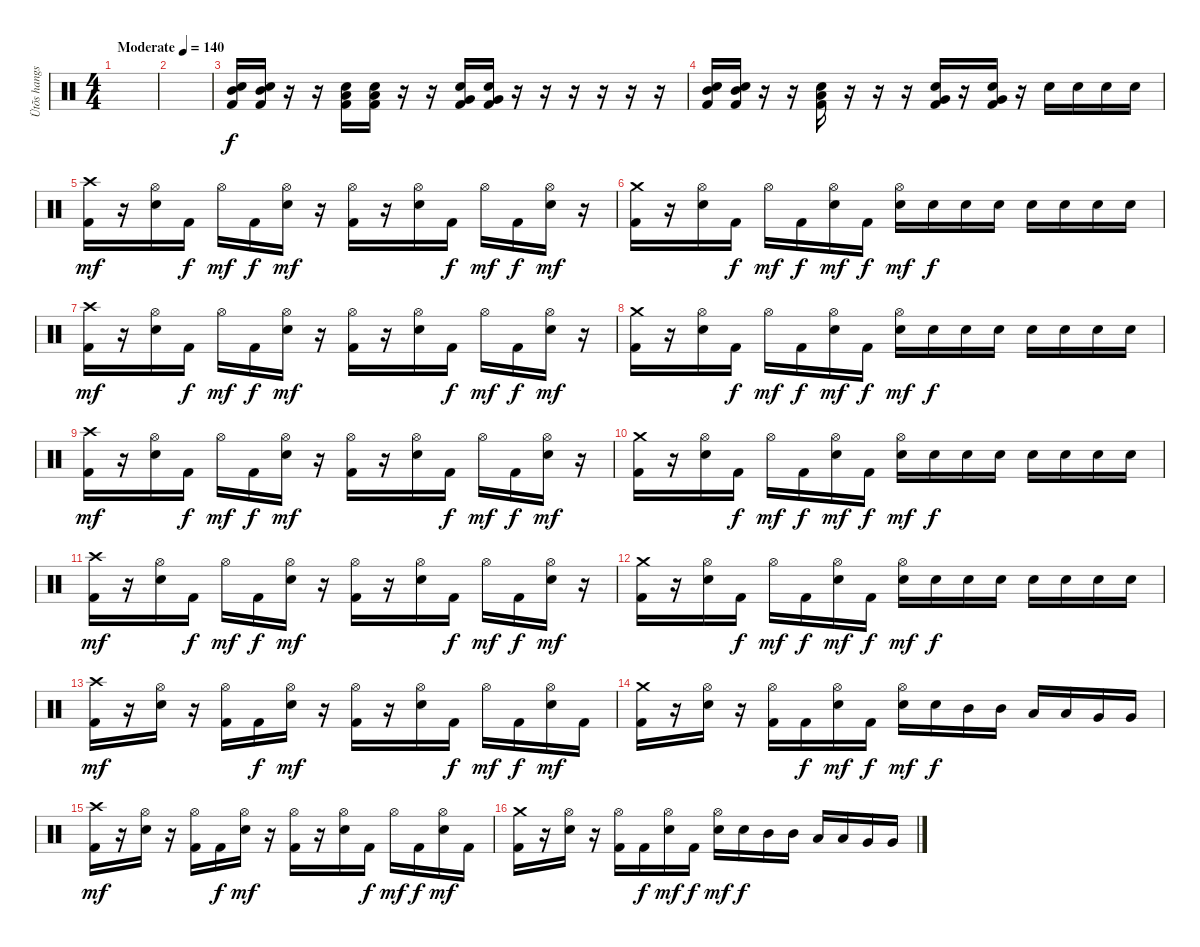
\track ("Ütõs hangszer" "Ütõs hangs") {instrument percussion}
\staff {score}
\articulation defaults
\ts (4 4)
\tempo (140 "Moderate")
\clef neutral
\ks c
|
|
("Mid Tom (hit)" "Electric Snare (hit)" "Kick (hit) 2").16 ("Mid Tom (hit)" "Electric Snare (hit)" "Kick (hit) 2").16 r.16 r.16 ("Low Tom (hit)" "Electric Snare (hit)" "Kick (hit) 2").16 ("Low Tom (hit)" "Electric Snare (hit)" "Kick (hit) 2").16 r.16 r.16 ("Very Low Tom (hit)" "Electric Snare (hit)" "Kick (hit) 2").16 ("Very Low Tom (hit)" "Electric Snare (hit)" "Kick (hit) 2").16 r.16 r.16 r.16 r.16 r.16 r.16 |
("Mid Tom (hit)" "Electric Snare (hit)" "Kick (hit) 2").16 ("Mid Tom (hit)" "Electric Snare (hit)" "Kick (hit) 2").16 r.16 r.16 ("Low Tom (hit)" "Electric Snare (hit)" "Kick (hit) 2").16 r.16 r.16 r.16 ("Very Low Tom (hit)" "Electric Snare (hit)" "Kick (hit) 2").16 r.16 ("Very Low Tom (hit)" "Electric Snare (hit)" "Kick (hit) 2").16 r.16 "Electric Snare (hit)".16 "Electric Snare (hit)".16 "Electric Snare (hit)".16 "Electric Snare (hit)".16 |
("Crash high (hit)" "Kick (hit) 2").16{dy mf} r.16 ("Hi-Hat (open)" "Electric Snare (hit)").16 "Kick (hit) 2".16{dy f} "Hi-Hat (open)".16{dy mf} "Kick (hit) 2".16{dy f} ("Hi-Hat (open)" "Electric Snare (hit)").16{dy mf} r.16 ("Hi-Hat (open)" "Kick (hit) 2").16 r.16 ("Hi-Hat (open)" "Electric Snare (hit)").16 "Kick (hit) 2".16{dy f} "Hi-Hat (open)".16{dy mf} "Kick (hit) 2".16{dy f} ("Hi-Hat (open)" "Electric Snare (hit)").16{dy mf} r.16 |
("Crash medium (hit)" "Kick (hit) 2").16 r.16 ("Hi-Hat (open)" "Electric Snare (hit)").16 "Kick (hit) 2".16{dy f} "Hi-Hat (open)".16{dy mf} "Kick (hit) 2".16{dy f} ("Hi-Hat (open)" "Electric Snare (hit)").16{dy mf} "Kick (hit) 2".16{dy f} ("Hi-Hat (open)" "Electric Snare (hit)").16{dy mf} "Electric Snare (hit)".16{dy f} "Electric Snare (hit)".16 "Electric Snare (hit)".16 "Electric Snare (hit)".16 "Electric Snare (hit)".16 "Electric Snare (hit)".16 "Electric Snare (hit)".16 |
("Crash high (hit)" "Kick (hit) 2").16{dy mf} r.16 ("Hi-Hat (open)" "Electric Snare (hit)").16 "Kick (hit) 2".16{dy f} "Hi-Hat (open)".16{dy mf} "Kick (hit) 2".16{dy f} ("Hi-Hat (open)" "Electric Snare (hit)").16{dy mf} r.16 ("Hi-Hat (open)" "Kick (hit) 2").16 r.16 ("Hi-Hat (open)" "Electric Snare (hit)").16 "Kick (hit) 2".16{dy f} "Hi-Hat (open)".16{dy mf} "Kick (hit) 2".16{dy f} ("Hi-Hat (open)" "Electric Snare (hit)").16{dy mf} r.16 |
("Crash medium (hit)" "Kick (hit) 2").16 r.16 ("Hi-Hat (open)" "Electric Snare (hit)").16 "Kick (hit) 2".16{dy f} "Hi-Hat (open)".16{dy mf} "Kick (hit) 2".16{dy f} ("Hi-Hat (open)" "Electric Snare (hit)").16{dy mf} "Kick (hit) 2".16{dy f} ("Hi-Hat (open)" "Electric Snare (hit)").16{dy mf} "Electric Snare (hit)".16{dy f} "Electric Snare (hit)".16 "Electric Snare (hit)".16 "Electric Snare (hit)".16 "Electric Snare (hit)".16 "Electric Snare (hit)".16 "Electric Snare (hit)".16 |
("Crash high (hit)" "Kick (hit) 2").16{dy mf} r.16 ("Hi-Hat (open)" "Electric Snare (hit)").16 "Kick (hit) 2".16{dy f} "Hi-Hat (open)".16{dy mf} "Kick (hit) 2".16{dy f} ("Hi-Hat (open)" "Electric Snare (hit)").16{dy mf} r.16 ("Hi-Hat (open)" "Kick (hit) 2").16 r.16 ("Hi-Hat (open)" "Electric Snare (hit)").16 "Kick (hit) 2".16{dy f} "Hi-Hat (open)".16{dy mf} "Kick (hit) 2".16{dy f} ("Hi-Hat (open)" "Electric Snare (hit)").16{dy mf} r.16 |
("Crash medium (hit)" "Kick (hit) 2").16 r.16 ("Hi-Hat (open)" "Electric Snare (hit)").16 "Kick (hit) 2".16{dy f} "Hi-Hat (open)".16{dy mf} "Kick (hit) 2".16{dy f} ("Hi-Hat (open)" "Electric Snare (hit)").16{dy mf} "Kick (hit) 2".16{dy f} ("Hi-Hat (open)" "Electric Snare (hit)").16{dy mf} "Electric Snare (hit)".16{dy f} "Electric Snare (hit)".16 "Electric Snare (hit)".16 "Electric Snare (hit)".16 "Electric Snare (hit)".16 "Electric Snare (hit)".16 "Electric Snare (hit)".16 |
("Crash high (hit)" "Kick (hit) 2").16{dy mf} r.16 ("Hi-Hat (open)" "Electric Snare (hit)").16 "Kick (hit) 2".16{dy f} "Hi-Hat (open)".16{dy mf} "Kick (hit) 2".16{dy f} ("Hi-Hat (open)" "Electric Snare (hit)").16{dy mf} r.16 ("Hi-Hat (open)" "Kick (hit) 2").16 r.16 ("Hi-Hat (open)" "Electric Snare (hit)").16 "Kick (hit) 2".16{dy f} "Hi-Hat (open)".16{dy mf} "Kick (hit) 2".16{dy f} ("Hi-Hat (open)" "Electric Snare (hit)").16{dy mf} r.16 |
("Crash medium (hit)" "Kick (hit) 2").16 r.16 ("Hi-Hat (open)" "Electric Snare (hit)").16 "Kick (hit) 2".16{dy f} "Hi-Hat (open)".16{dy mf} "Kick (hit) 2".16{dy f} ("Hi-Hat (open)" "Electric Snare (hit)").16{dy mf} "Kick (hit) 2".16{dy f} ("Hi-Hat (open)" "Electric Snare (hit)").16{dy mf} "Electric Snare (hit)".16{dy f} "Electric Snare (hit)".16 "Electric Snare (hit)".16 "Electric Snare (hit)".16 "Electric Snare (hit)".16 "Electric Snare (hit)".16 "Electric Snare (hit)".16 |
("Crash high (hit)" "Kick (hit) 2").16{dy mf} r.16 ("Hi-Hat (open)" "Electric Snare (hit)").16 r.16 ("Hi-Hat (open)" "Kick (hit) 2").16 "Kick (hit) 2".16{dy f} ("Hi-Hat (open)" "Electric Snare (hit)").16{dy mf} r.16 ("Hi-Hat (open)" "Kick (hit) 2").16 r.16 ("Hi-Hat (open)" "Electric Snare (hit)").16 "Kick (hit) 2".16{dy f} "Hi-Hat (open)".16{dy mf} "Kick (hit) 2".16{dy f} ("Hi-Hat (open)" "Electric Snare (hit)").16{dy mf} "Kick (hit) 2".16 |
("Crash medium (hit)" "Kick (hit) 2").16 r.16 ("Hi-Hat (open)" "Electric Snare (hit)").16 r.16 ("Hi-Hat (open)" "Kick (hit) 2").16 "Kick (hit) 2".16{dy f} ("Hi-Hat (open)" "Electric Snare (hit)").16{dy mf} "Kick (hit) 2".16{dy f} ("Hi-Hat (open)" "Electric Snare (hit)").16{dy mf} "Electric Snare (hit)".16{dy f} "Mid Tom (hit)".16 "Mid Tom (hit)".16 "Low Tom (hit)".16 "Low Tom (hit)".16 "Very Low Tom (hit)".16 "Very Low Tom (hit)".16 |
("Crash high (hit)" "Kick (hit) 2").16{dy mf} r.16 ("Hi-Hat (open)" "Electric Snare (hit)").16 r.16 ("Hi-Hat (open)" "Kick (hit) 2").16 "Kick (hit) 2".16{dy f} ("Hi-Hat (open)" "Electric Snare (hit)").16{dy mf} r.16 ("Hi-Hat (open)" "Kick (hit) 2").16 r.16 ("Hi-Hat (open)" "Electric Snare (hit)").16 "Kick (hit) 2".16{dy f} "Hi-Hat (open)".16{dy mf} "Kick (hit) 2".16{dy f} ("Hi-Hat (open)" "Electric Snare (hit)").16{dy mf} "Kick (hit) 2".16 |
("Crash medium (hit)" "Kick (hit) 2").16 r.16 ("Hi-Hat (open)" "Electric Snare (hit)").16 r.16 ("Hi-Hat (open)" "Kick (hit) 2").16 "Kick (hit) 2".16{dy f} ("Hi-Hat (open)" "Electric Snare (hit)").16{dy mf} "Kick (hit) 2".16{dy f} ("Hi-Hat (open)" "Electric Snare (hit)").16{dy mf} "Electric Snare (hit)".16{dy f} "Mid Tom (hit)".16 "Mid Tom (hit)".16 "Low Tom (hit)".16 "Low Tom (hit)".16 "Very Low Tom (hit)".16 "Very Low Tom (hit)".16
